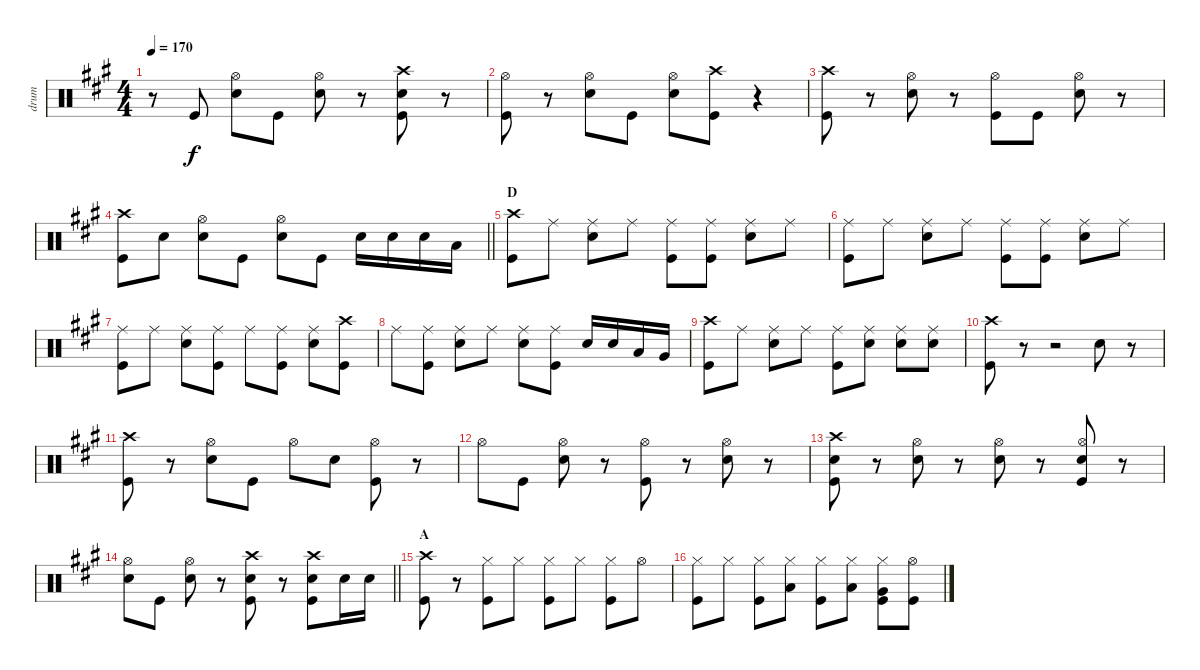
\track ("drum" "drum") {instrument percussion}
\staff {score}
\articulation defaults
\ts (4 4)
\tempo 170
\clef neutral
\ks a
r.8{dy f} "Kick (hit)".8 ("Hi-Hat (open)" "Snare (hit) 2").8 "Kick (hit)".8 ("Hi-Hat (open)" "Snare (hit) 2").8 r.8 ("Crash high (hit)" "Snare (hit) 2" "Kick (hit)").8 r.8 |
("Hi-Hat (open)" "Kick (hit)").8 r.8 ("Hi-Hat (open)" "Snare (hit) 2").8 "Kick (hit)".8 ("Hi-Hat (open)" "Snare (hit) 2").8 ("Crash high (hit)" "Kick (hit)").8 r.4 |
("Crash high (hit)" "Kick (hit)").8 r.8 ("Hi-Hat (open)" "Snare (hit) 2").8 r.8 ("Hi-Hat (open)" "Kick (hit)").8 "Kick (hit)".8 ("Hi-Hat (open)" "Snare (hit) 2").8 r.8 |
\barLineRight lightlight
("Crash high (hit)" "Kick (hit)").8 "Snare (hit) 2".8 ("Hi-Hat (open)" "Snare (hit) 2").8 "Kick (hit)".8 ("Hi-Hat (open)" "Snare (hit) 2").8 "Kick (hit)".8 "Snare (hit) 2".16 "Snare (hit) 2".16 "Snare (hit) 2".16 "Low Tom (hit)".16 |
\section ("" "D")
("Crash high (hit)" "Kick (hit)").8 "Ride (middle)".8 ("Ride (middle)" "Snare (hit) 2").8 "Ride (middle)".8 ("Ride (middle)" "Kick (hit)").8 ("Ride (middle)" "Kick (hit)").8 ("Ride (middle)" "Snare (hit) 2").8 "Ride (middle)".8 |
("Ride (middle)" "Kick (hit)").8 "Ride (middle)".8 ("Ride (middle)" "Snare (hit) 2").8 "Ride (middle)".8 ("Ride (middle)" "Kick (hit)").8 ("Ride (middle)" "Kick (hit)").8 ("Ride (middle)" "Snare (hit) 2").8 "Ride (middle)".8 |
("Ride (middle)" "Kick (hit)").8 "Ride (middle)".8 ("Ride (middle)" "Snare (hit) 2").8 ("Ride (middle)" "Kick (hit)").8 "Ride (middle)".8 ("Ride (middle)" "Kick (hit)").8 ("Ride (middle)" "Snare (hit) 2").8 ("Crash high (hit)" "Kick (hit)").8 |
"Ride (middle)".8 ("Ride (middle)" "Kick (hit)").8 ("Ride (middle)" "Snare (hit) 2").8 "Ride (middle)".8 ("Ride (middle)" "Snare (hit) 2").8 ("Ride (middle)" "Kick (hit)").8 "Snare (hit) 2".16 "Snare (hit) 2".16 "Low Tom (hit)".16 "Very Low Tom (hit)".16 |
("Crash high (hit)" "Kick (hit)").8 "Ride (middle)".8 ("Ride (middle)" "Snare (hit) 2").8 "Ride (middle)".8 ("Ride (middle)" "Kick (hit)").8 ("Ride (middle)" "Snare (hit) 2").8 ("Ride (middle)" "Snare (hit) 2").8 ("Ride (middle)" "Snare (hit) 2").8 |
("Crash high (hit)" "Kick (hit)").8 r.8 r.2 "Snare (hit) 2".8 r.8 |
("Crash high (hit)" "Kick (hit)").8 r.8 ("Hi-Hat (open)" "Snare (hit) 2").8 "Kick (hit)".8 "Hi-Hat (open)".8 "Snare (hit) 2".8 ("Hi-Hat (open)" "Kick (hit)").8 r.8 |
"Hi-Hat (open)".8 "Kick (hit)".8 ("Hi-Hat (open)" "Snare (hit) 2").8 r.8 ("Hi-Hat (open)" "Kick (hit)").8 r.8 ("Hi-Hat (open)" "Snare (hit) 2").8 r.8 |
("Crash high (hit)" "Snare (hit) 2" "Kick (hit)").8 r.8 ("Hi-Hat (open)" "Snare (hit) 2").8 r.8 ("Hi-Hat (open)" "Snare (hit) 2").8 r.8 ("Hi-Hat (open)" "Snare (hit) 2" "Kick (hit)").8 r.8 |
\barLineRight lightlight
("Hi-Hat (open)" "Snare (hit) 2").8 "Kick (hit)".8 ("Hi-Hat (open)" "Snare (hit) 2").8 r.8 ("Crash high (hit)" "Snare (hit) 2" "Kick (hit)").8 r.8 ("Crash high (hit)" "Snare (hit) 2" "Kick (hit)").8 "Snare (hit) 2".16 "Snare (hit) 2".16 |
\section ("" "A")
("Crash high (hit)" "Kick (hit)").8 r.8 ("Hi-Hat (closed)" "Kick (hit)").8 "Hi-Hat (closed)".8 ("Hi-Hat (closed)" "Kick (hit)").8 "Hi-Hat (closed)".8 ("Hi-Hat (closed)" "Kick (hit)").8 "Hi-Hat (open)".8 |
("Hi-Hat (closed)" "Kick (hit)").8 "Hi-Hat (closed)".8 ("Hi-Hat (closed)" "Kick (hit)").8 ("Hi-Hat (closed)" "Low Tom (hit)").8 ("Hi-Hat (closed)" "Kick (hit)").8 ("Hi-Hat (closed)" "Low Tom (hit)").8 ("Hi-Hat (closed)" "Very Low Tom (hit)" "Kick (hit)").8 ("Hi-Hat (open)" "Kick (hit)").8
